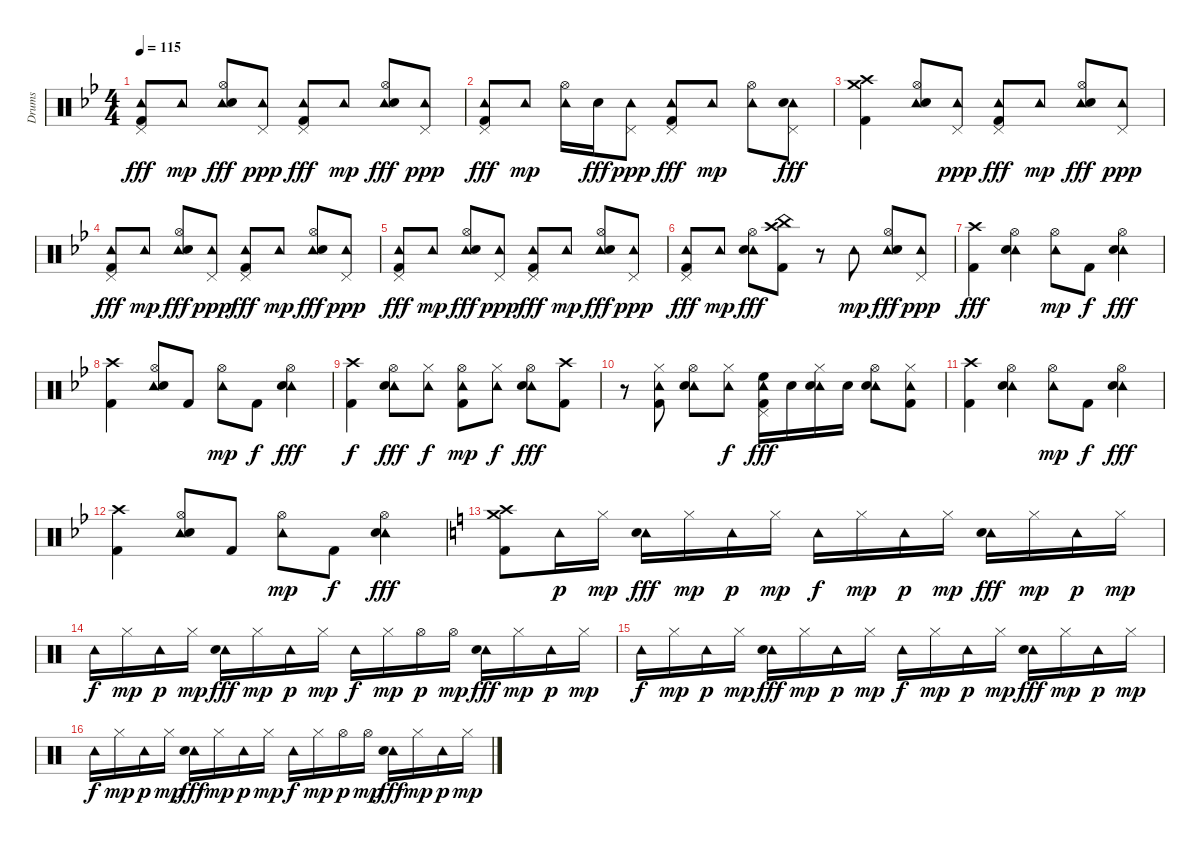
\track ("Drums" "Drums") {instrument percussion}
\staff {score}
\articulation defaults
\ts (4 4)
\tempo 115
\clef neutral
\ks bb
("Tambourine (hit)" "Pedal Hi-Hat (hit)" "Kick (hit) 2").8{dy fff} "Tambourine (hit)".8{dy mp} ("Tambourine (hit)" "Hi-Hat (open)" "Electric Snare (hit)").8{dy fff} ("Tambourine (hit)" "Pedal Hi-Hat (hit)").8{dy ppp} ("Tambourine (hit)" "Pedal Hi-Hat (hit)" "Kick (hit) 2").8{dy fff} "Tambourine (hit)".8{dy mp} ("Tambourine (hit)" "Hi-Hat (open)" "Electric Snare (hit)").8{dy fff} ("Tambourine (hit)" "Pedal Hi-Hat (hit)").8{dy ppp} |
("Tambourine (hit)" "Pedal Hi-Hat (hit)" "Kick (hit) 2").8{dy fff} "Tambourine (hit)".8{dy mp} ("Tambourine (hit)" "Hi-Hat (open)").16 "Electric Snare (hit)".16{dy fff} ("Tambourine (hit)" "Pedal Hi-Hat (hit)").8{dy ppp} ("Tambourine (hit)" "Pedal Hi-Hat (hit)" "Kick (hit) 2").8{dy fff} "Tambourine (hit)".8{dy mp} ("Tambourine (hit)" "Hi-Hat (open)").8 ("Tambourine (hit)" "Pedal Hi-Hat (hit)" "Electric Snare (hit)").8{dy fff} |
("Crash high (hit)" "Crash medium (hit)" "Kick (hit) 2").4 ("Tambourine (hit)" "Hi-Hat (open)" "Electric Snare (hit)").8 ("Tambourine (hit)" "Pedal Hi-Hat (hit)").8{dy ppp} ("Tambourine (hit)" "Pedal Hi-Hat (hit)" "Kick (hit) 2").8{dy fff} "Tambourine (hit)".8{dy mp} ("Tambourine (hit)" "Hi-Hat (open)" "Electric Snare (hit)").8{dy fff} ("Tambourine (hit)" "Pedal Hi-Hat (hit)").8{dy ppp} |
("Tambourine (hit)" "Pedal Hi-Hat (hit)" "Kick (hit) 2").8{dy fff} "Tambourine (hit)".8{dy mp} ("Tambourine (hit)" "Hi-Hat (open)" "Electric Snare (hit)").8{dy fff} ("Tambourine (hit)" "Pedal Hi-Hat (hit)").8{dy ppp} ("Tambourine (hit)" "Pedal Hi-Hat (hit)" "Kick (hit) 2").8{dy fff} "Tambourine (hit)".8{dy mp} ("Tambourine (hit)" "Hi-Hat (open)" "Electric Snare (hit)").8{dy fff} ("Tambourine (hit)" "Pedal Hi-Hat (hit)").8{dy ppp} |
("Tambourine (hit)" "Pedal Hi-Hat (hit)" "Kick (hit) 2").8{dy fff} "Tambourine (hit)".8{dy mp} ("Tambourine (hit)" "Hi-Hat (open)" "Electric Snare (hit)").8{dy fff} ("Tambourine (hit)" "Pedal Hi-Hat (hit)").8{dy ppp} ("Tambourine (hit)" "Pedal Hi-Hat (hit)" "Kick (hit) 2").8{dy fff} "Tambourine (hit)".8{dy mp} ("Tambourine (hit)" "Hi-Hat (open)" "Electric Snare (hit)").8{dy fff} ("Tambourine (hit)" "Pedal Hi-Hat (hit)").8{dy ppp} |
("Tambourine (hit)" "Pedal Hi-Hat (hit)" "Kick (hit) 2").8{dy fff} "Tambourine (hit)".8{dy mp} ("Tambourine (hit)" "Hi-Hat (open)" "Electric Snare (hit)").8{dy fff} ("China (hit)" "Crash high (hit)" "Kick (hit) 2").8 r.8 "Tambourine (hit)".8{dy mp} ("Tambourine (hit)" "Hi-Hat (open)" "Electric Snare (hit)").8{dy fff} ("Tambourine (hit)" "Pedal Hi-Hat (hit)").8{dy ppp} |
("Crash high (hit)" "Kick (hit) 2").4{dy fff} ("Hi-Hat (open)" "Tambourine (hit)" "Electric Snare (hit)").4 ("Hi-Hat (open)" "Tambourine (hit)").8{dy mp} "Kick (hit) 2".8{dy f} ("Hi-Hat (open)" "Tambourine (hit)" "Electric Snare (hit)").4{dy fff} |
("Crash high (hit)" "Kick (hit) 2").4 ("Hi-Hat (open)" "Tambourine (hit)" "Electric Snare (hit)").8 "Kick (hit) 2".8 ("Hi-Hat (open)" "Tambourine (hit)").8{dy mp} "Kick (hit) 2".8{dy f} ("Hi-Hat (open)" "Tambourine (hit)" "Electric Snare (hit)").4{dy fff} |
("Crash high (hit)" "Kick (hit) 2").4{dy f} ("Hi-Hat (open)" "Tambourine (hit)" "Electric Snare (hit)").8{dy fff} ("Hi-Hat (closed)" "Tambourine (hit)").8{dy f} ("Hi-Hat (open)" "Tambourine (hit)" "Kick (hit) 2").8{dy mp} ("Hi-Hat (closed)" "Tambourine (hit)").8{dy f} ("Hi-Hat (open)" "Tambourine (hit)" "Electric Snare (hit)").8{dy fff} ("Crash high (hit)" "Kick (hit) 2").8 |
r.8 ("Hi-Hat (closed)" "Tambourine (hit)" "Kick (hit) 2").8 ("Hi-Hat (open)" "Tambourine (hit)" "Electric Snare (hit)").8 ("Hi-Hat (closed)" "Tambourine (hit)").8{dy f} ("Pedal Hi-Hat (hit)" "Tambourine (hit)" "High Floor Tom (hit)" "Kick (hit) 2").16{dy fff} "Electric Snare (hit)".16 ("Hi-Hat (closed)" "Tambourine (hit)" "Electric Snare (hit)").16 "Electric Snare (hit)".16 ("Hi-Hat (open)" "Tambourine (hit)" "Electric Snare (hit)").8 ("Hi-Hat (closed)" "Tambourine (hit)" "Kick (hit) 2").8 |
("Crash high (hit)" "Kick (hit) 2").4 ("Hi-Hat (open)" "Tambourine (hit)" "Electric Snare (hit)").4 ("Hi-Hat (open)" "Tambourine (hit)").8{dy mp} "Kick (hit) 2".8{dy f} ("Hi-Hat (open)" "Tambourine (hit)" "Electric Snare (hit)").4{dy fff} |
("Crash high (hit)" "Kick (hit) 2").4 ("Hi-Hat (open)" "Tambourine (hit)" "Electric Snare (hit)").8 "Kick (hit) 2".8 ("Hi-Hat (open)" "Tambourine (hit)").8{dy mp} "Kick (hit) 2".8{dy f} ("Hi-Hat (open)" "Tambourine (hit)" "Electric Snare (hit)").4{dy fff} |
\ks c
("Crash medium (hit)" "Crash high (hit)" "Kick (hit) 2").8 "Tambourine (hit)".16{dy p} "Hi-Hat (closed)".16{dy mp} ("Tambourine (hit)" "Electric Snare (hit)").16{dy fff} "Hi-Hat (closed)".16{dy mp} "Tambourine (hit)".16{dy p} "Hi-Hat (closed)".16{dy mp} "Tambourine (hit)".16{dy f} "Hi-Hat (closed)".16{dy mp} "Tambourine (hit)".16{dy p} "Hi-Hat (closed)".16{dy mp} ("Tambourine (hit)" "Electric Snare (hit)").16{dy fff} "Hi-Hat (closed)".16{dy mp} "Tambourine (hit)".16{dy p} "Hi-Hat (closed)".16{dy mp} |
"Tambourine (hit)".16{dy f} "Hi-Hat (closed)".16{dy mp} "Tambourine (hit)".16{dy p} "Hi-Hat (closed)".16{dy mp} ("Tambourine (hit)" "Electric Snare (hit)").16{dy fff} "Hi-Hat (closed)".16{dy mp} "Tambourine (hit)".16{dy p} "Hi-Hat (closed)".16{dy mp} "Tambourine (hit)".16{dy f} "Hi-Hat (closed)".16{dy mp} "Hi-Hat (open)".16{dy p} "Hi-Hat (open)".16{dy mp} ("Tambourine (hit)" "Electric Snare (hit)").16{dy fff} "Hi-Hat (closed)".16{dy mp} "Tambourine (hit)".16{dy p} "Hi-Hat (closed)".16{dy mp} |
"Tambourine (hit)".16{dy f} "Hi-Hat (closed)".16{dy mp} "Tambourine (hit)".16{dy p} "Hi-Hat (closed)".16{dy mp} ("Tambourine (hit)" "Electric Snare (hit)").16{dy fff} "Hi-Hat (closed)".16{dy mp} "Tambourine (hit)".16{dy p} "Hi-Hat (closed)".16{dy mp} "Tambourine (hit)".16{dy f} "Hi-Hat (closed)".16{dy mp} "Tambourine (hit)".16{dy p} "Hi-Hat (closed)".16{dy mp} ("Tambourine (hit)" "Electric Snare (hit)").16{dy fff} "Hi-Hat (closed)".16{dy mp} "Tambourine (hit)".16{dy p} "Hi-Hat (closed)".16{dy mp} |
"Tambourine (hit)".16{dy f} "Hi-Hat (closed)".16{dy mp} "Tambourine (hit)".16{dy p} "Hi-Hat (closed)".16{dy mp} ("Tambourine (hit)" "Electric Snare (hit)").16{dy fff} "Hi-Hat (closed)".16{dy mp} "Tambourine (hit)".16{dy p} "Hi-Hat (closed)".16{dy mp} "Tambourine (hit)".16{dy f} "Hi-Hat (closed)".16{dy mp} "Hi-Hat (open)".16{dy p} "Hi-Hat (open)".16{dy mp} ("Tambourine (hit)" "Electric Snare (hit)").16{dy fff} "Hi-Hat (closed)".16{dy mp} "Tambourine (hit)".16{dy p} "Hi-Hat (closed)".16{dy mp}
